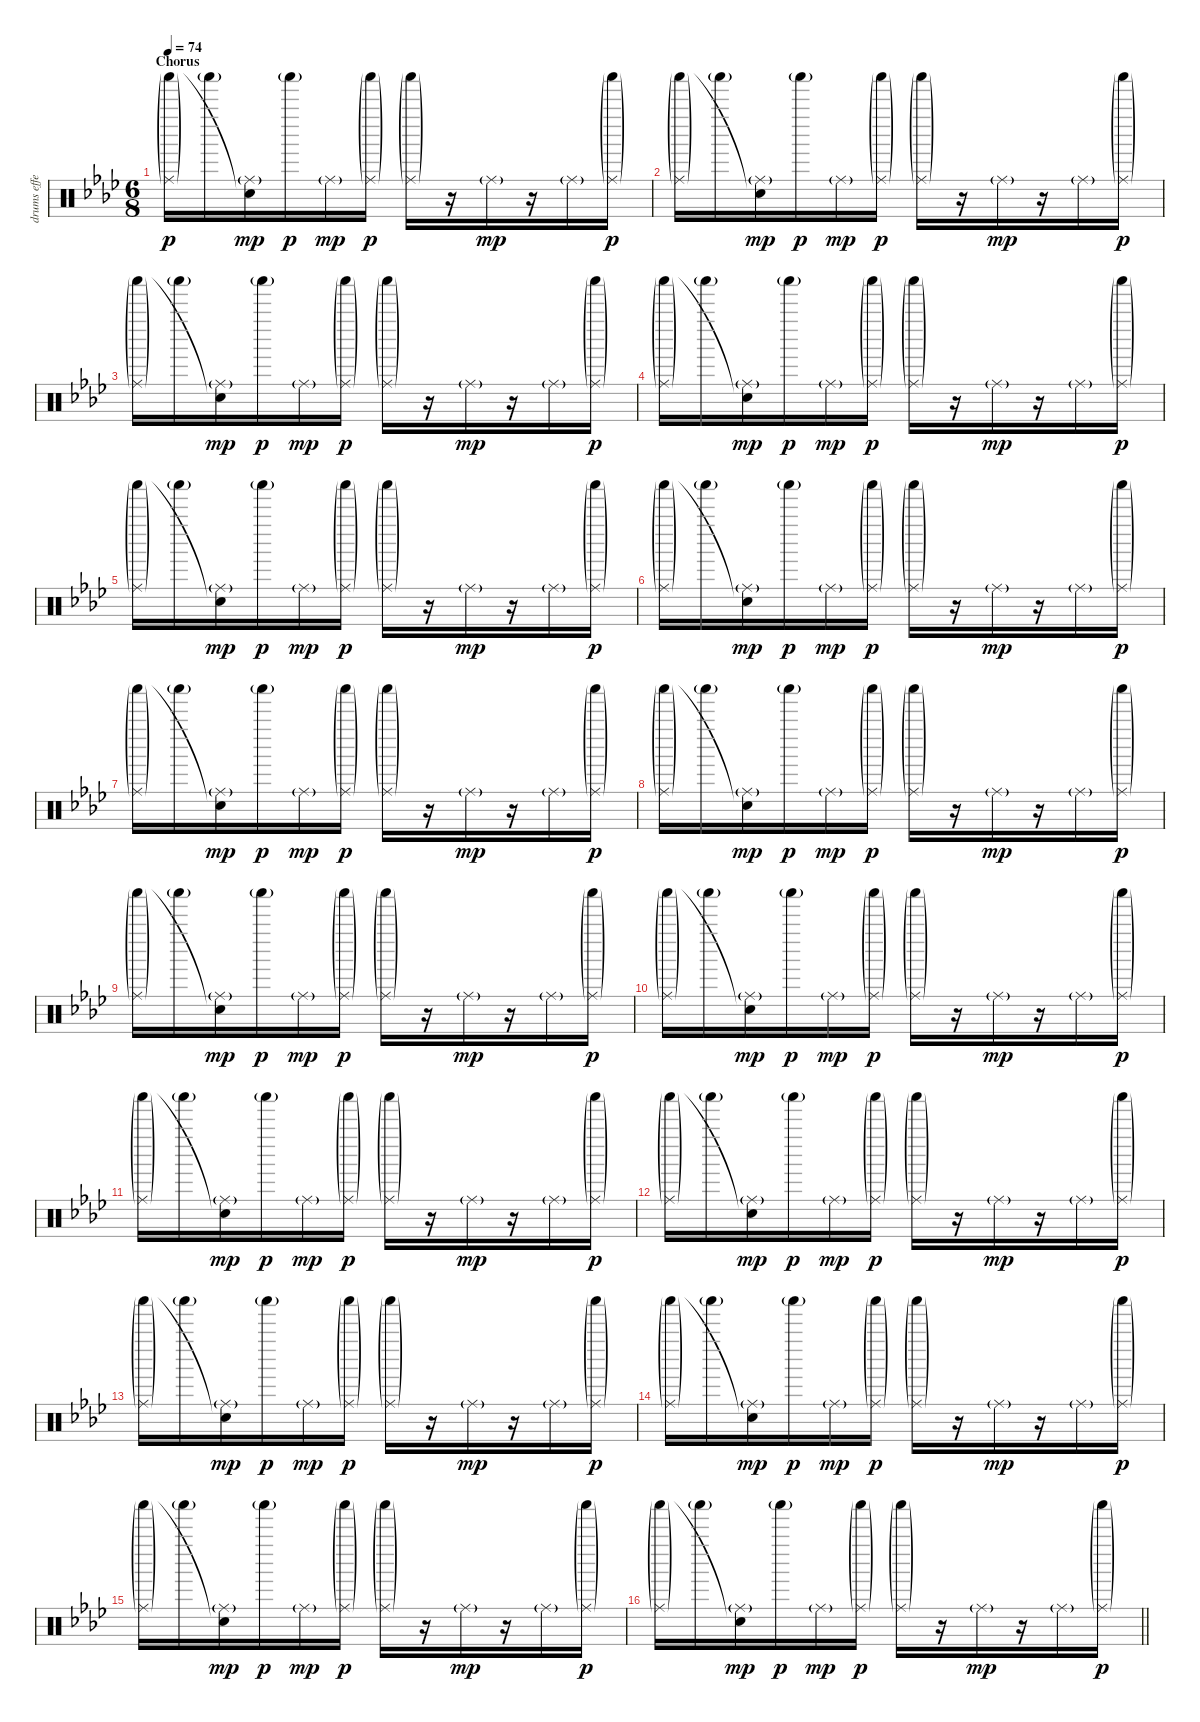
\track ("drums effect" "drums effe") {instrument percussion}
\staff {score}
\articulation defaults
\ts (6 8)
\section ("" "Chorus")
\tempo 74
\clef neutral
\ks ab
("Ride (middle)"{g} "Shaker (hit)"{g}).16{dy p} "Shaker (hit)"{g}.16 ("Ride (middle)"{g} "Snare (hit)"{t}).16{dy mp} "Shaker (hit)"{g}.16{dy p} "Ride (middle)"{g}.16{dy mp} ("Ride (middle)"{g} "Shaker (hit)"{g}).16{dy p} ("Ride (middle)"{g} "Shaker (hit)"{g}).16 r.16 "Ride (middle)"{g}.16{dy mp} r.16 "Ride (middle)"{g}.16 ("Ride (middle)"{g} "Shaker (hit)"{g}).16{dy p} |
("Ride (middle)"{g} "Shaker (hit)"{g}).16 "Shaker (hit)"{g}.16 ("Ride (middle)"{g} "Snare (hit)"{t}).16{dy mp} "Shaker (hit)"{g}.16{dy p} "Ride (middle)"{g}.16{dy mp} ("Ride (middle)"{g} "Shaker (hit)"{g}).16{dy p} ("Ride (middle)"{g} "Shaker (hit)"{g}).16 r.16 "Ride (middle)"{g}.16{dy mp} r.16 "Ride (middle)"{g}.16 ("Ride (middle)"{g} "Shaker (hit)"{g}).16{dy p} |
("Ride (middle)"{g} "Shaker (hit)"{g}).16 "Shaker (hit)"{g}.16 ("Ride (middle)"{g} "Snare (hit)"{t}).16{dy mp} "Shaker (hit)"{g}.16{dy p} "Ride (middle)"{g}.16{dy mp} ("Ride (middle)"{g} "Shaker (hit)"{g}).16{dy p} ("Ride (middle)"{g} "Shaker (hit)"{g}).16 r.16 "Ride (middle)"{g}.16{dy mp} r.16 "Ride (middle)"{g}.16 ("Ride (middle)"{g} "Shaker (hit)"{g}).16{dy p} |
("Ride (middle)"{g} "Shaker (hit)"{g}).16 "Shaker (hit)"{g}.16 ("Ride (middle)"{g} "Snare (hit)"{t}).16{dy mp} "Shaker (hit)"{g}.16{dy p} "Ride (middle)"{g}.16{dy mp} ("Ride (middle)"{g} "Shaker (hit)"{g}).16{dy p} ("Ride (middle)"{g} "Shaker (hit)"{g}).16 r.16 "Ride (middle)"{g}.16{dy mp} r.16 "Ride (middle)"{g}.16 ("Ride (middle)"{g} "Shaker (hit)"{g}).16{dy p} |
("Ride (middle)"{g} "Shaker (hit)"{g}).16 "Shaker (hit)"{g}.16 ("Ride (middle)"{g} "Snare (hit)"{t}).16{dy mp} "Shaker (hit)"{g}.16{dy p} "Ride (middle)"{g}.16{dy mp} ("Ride (middle)"{g} "Shaker (hit)"{g}).16{dy p} ("Ride (middle)"{g} "Shaker (hit)"{g}).16 r.16 "Ride (middle)"{g}.16{dy mp} r.16 "Ride (middle)"{g}.16 ("Ride (middle)"{g} "Shaker (hit)"{g}).16{dy p} |
("Ride (middle)"{g} "Shaker (hit)"{g}).16 "Shaker (hit)"{g}.16 ("Ride (middle)"{g} "Snare (hit)"{t}).16{dy mp} "Shaker (hit)"{g}.16{dy p} "Ride (middle)"{g}.16{dy mp} ("Ride (middle)"{g} "Shaker (hit)"{g}).16{dy p} ("Ride (middle)"{g} "Shaker (hit)"{g}).16 r.16 "Ride (middle)"{g}.16{dy mp} r.16 "Ride (middle)"{g}.16 ("Ride (middle)"{g} "Shaker (hit)"{g}).16{dy p} |
("Ride (middle)"{g} "Shaker (hit)"{g}).16 "Shaker (hit)"{g}.16 ("Ride (middle)"{g} "Snare (hit)"{t}).16{dy mp} "Shaker (hit)"{g}.16{dy p} "Ride (middle)"{g}.16{dy mp} ("Ride (middle)"{g} "Shaker (hit)"{g}).16{dy p} ("Ride (middle)"{g} "Shaker (hit)"{g}).16 r.16 "Ride (middle)"{g}.16{dy mp} r.16 "Ride (middle)"{g}.16 ("Ride (middle)"{g} "Shaker (hit)"{g}).16{dy p} |
("Ride (middle)"{g} "Shaker (hit)"{g}).16 "Shaker (hit)"{g}.16 ("Ride (middle)"{g} "Snare (hit)"{t}).16{dy mp} "Shaker (hit)"{g}.16{dy p} "Ride (middle)"{g}.16{dy mp} ("Ride (middle)"{g} "Shaker (hit)"{g}).16{dy p} ("Ride (middle)"{g} "Shaker (hit)"{g}).16 r.16 "Ride (middle)"{g}.16{dy mp} r.16 "Ride (middle)"{g}.16 ("Ride (middle)"{g} "Shaker (hit)"{g}).16{dy p} |
("Ride (middle)"{g} "Shaker (hit)"{g}).16 "Shaker (hit)"{g}.16 ("Ride (middle)"{g} "Snare (hit)"{t}).16{dy mp} "Shaker (hit)"{g}.16{dy p} "Ride (middle)"{g}.16{dy mp} ("Ride (middle)"{g} "Shaker (hit)"{g}).16{dy p} ("Ride (middle)"{g} "Shaker (hit)"{g}).16 r.16 "Ride (middle)"{g}.16{dy mp} r.16 "Ride (middle)"{g}.16 ("Ride (middle)"{g} "Shaker (hit)"{g}).16{dy p} |
("Ride (middle)"{g} "Shaker (hit)"{g}).16 "Shaker (hit)"{g}.16 ("Ride (middle)"{g} "Snare (hit)"{t}).16{dy mp} "Shaker (hit)"{g}.16{dy p} "Ride (middle)"{g}.16{dy mp} ("Ride (middle)"{g} "Shaker (hit)"{g}).16{dy p} ("Ride (middle)"{g} "Shaker (hit)"{g}).16 r.16 "Ride (middle)"{g}.16{dy mp} r.16 "Ride (middle)"{g}.16 ("Ride (middle)"{g} "Shaker (hit)"{g}).16{dy p} |
("Ride (middle)"{g} "Shaker (hit)"{g}).16 "Shaker (hit)"{g}.16 ("Ride (middle)"{g} "Snare (hit)"{t}).16{dy mp} "Shaker (hit)"{g}.16{dy p} "Ride (middle)"{g}.16{dy mp} ("Ride (middle)"{g} "Shaker (hit)"{g}).16{dy p} ("Ride (middle)"{g} "Shaker (hit)"{g}).16 r.16 "Ride (middle)"{g}.16{dy mp} r.16 "Ride (middle)"{g}.16 ("Ride (middle)"{g} "Shaker (hit)"{g}).16{dy p} |
("Ride (middle)"{g} "Shaker (hit)"{g}).16 "Shaker (hit)"{g}.16 ("Ride (middle)"{g} "Snare (hit)"{t}).16{dy mp} "Shaker (hit)"{g}.16{dy p} "Ride (middle)"{g}.16{dy mp} ("Ride (middle)"{g} "Shaker (hit)"{g}).16{dy p} ("Ride (middle)"{g} "Shaker (hit)"{g}).16 r.16 "Ride (middle)"{g}.16{dy mp} r.16 "Ride (middle)"{g}.16 ("Ride (middle)"{g} "Shaker (hit)"{g}).16{dy p} |
("Ride (middle)"{g} "Shaker (hit)"{g}).16 "Shaker (hit)"{g}.16 ("Ride (middle)"{g} "Snare (hit)"{t}).16{dy mp} "Shaker (hit)"{g}.16{dy p} "Ride (middle)"{g}.16{dy mp} ("Ride (middle)"{g} "Shaker (hit)"{g}).16{dy p} ("Ride (middle)"{g} "Shaker (hit)"{g}).16 r.16 "Ride (middle)"{g}.16{dy mp} r.16 "Ride (middle)"{g}.16 ("Ride (middle)"{g} "Shaker (hit)"{g}).16{dy p} |
("Ride (middle)"{g} "Shaker (hit)"{g}).16 "Shaker (hit)"{g}.16 ("Ride (middle)"{g} "Snare (hit)"{t}).16{dy mp} "Shaker (hit)"{g}.16{dy p} "Ride (middle)"{g}.16{dy mp} ("Ride (middle)"{g} "Shaker (hit)"{g}).16{dy p} ("Ride (middle)"{g} "Shaker (hit)"{g}).16 r.16 "Ride (middle)"{g}.16{dy mp} r.16 "Ride (middle)"{g}.16 ("Ride (middle)"{g} "Shaker (hit)"{g}).16{dy p} |
("Ride (middle)"{g} "Shaker (hit)"{g}).16 "Shaker (hit)"{g}.16 ("Ride (middle)"{g} "Snare (hit)"{t}).16{dy mp} "Shaker (hit)"{g}.16{dy p} "Ride (middle)"{g}.16{dy mp} ("Ride (middle)"{g} "Shaker (hit)"{g}).16{dy p} ("Ride (middle)"{g} "Shaker (hit)"{g}).16 r.16 "Ride (middle)"{g}.16{dy mp} r.16 "Ride (middle)"{g}.16 ("Ride (middle)"{g} "Shaker (hit)"{g}).16{dy p} |
\barLineRight lightlight
("Ride (middle)"{g} "Shaker (hit)"{g}).16 "Shaker (hit)"{g}.16 ("Ride (middle)"{g} "Snare (hit)"{t}).16{dy mp} "Shaker (hit)"{g}.16{dy p} "Ride (middle)"{g}.16{dy mp} ("Ride (middle)"{g} "Shaker (hit)"{g}).16{dy p} ("Ride (middle)"{g} "Shaker (hit)"{g}).16 r.16 "Ride (middle)"{g}.16{dy mp} r.16 "Ride (middle)"{g}.16 ("Ride (middle)"{g} "Shaker (hit)"{g}).16{dy p}
